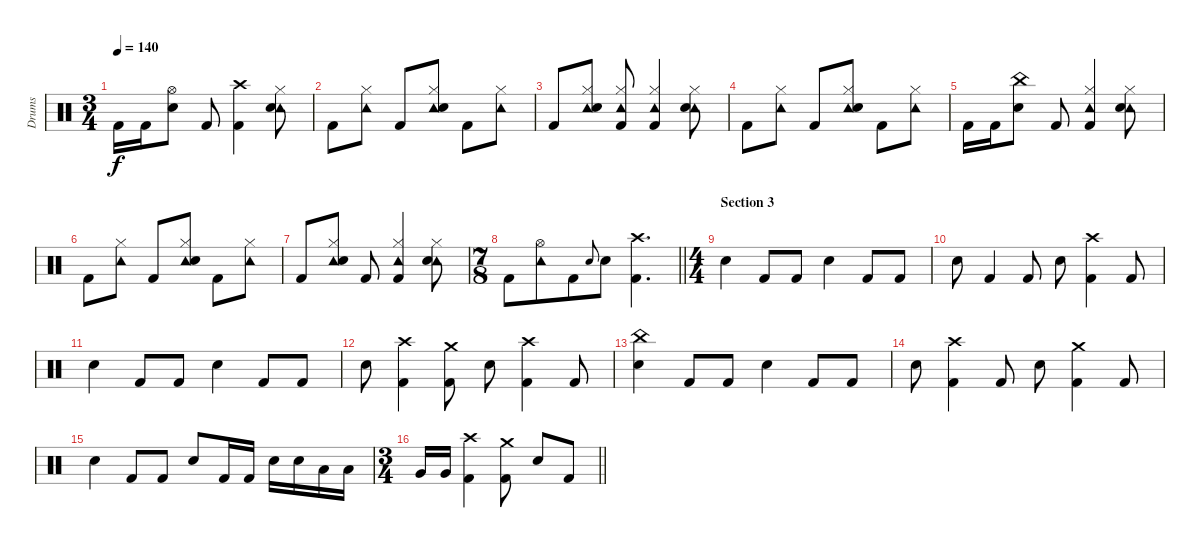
\track ("Drums" "Drums") {instrument percussion}
\staff {score}
\articulation defaults
\ts (3 4)
\tempo 140
\clef neutral
\ks c "Kick (hit) 2".16{dy f} "Kick (hit) 2".16
("Hi-Hat (open)" "Snare (hit) 2").8 "Kick (hit) 2".8 ("Crash high (hit)" "Kick (hit) 2").4 ("Hi-Hat (closed)" "Tambourine (hit)" "Snare (hit) 2").8 |
"Kick (hit) 2".8 ("Hi-Hat (closed)" "Tambourine (hit)").8 "Kick (hit) 2".8 ("Hi-Hat (closed)" "Tambourine (hit)" "Snare (hit) 2").8 "Kick (hit) 2".8 ("Hi-Hat (closed)" "Tambourine (hit)").8 |
"Kick (hit) 2".8 ("Hi-Hat (closed)" "Tambourine (hit)" "Snare (hit) 2").8 ("Hi-Hat (closed)" "Tambourine (hit)" "Kick (hit) 2").8 ("Hi-Hat (closed)" "Tambourine (hit)" "Kick (hit) 2").4 ("Hi-Hat (closed)" "Tambourine (hit)" "Snare (hit) 2").8 |
"Kick (hit) 2".8 ("Hi-Hat (closed)" "Tambourine (hit)").8 "Kick (hit) 2".8 ("Hi-Hat (closed)" "Tambourine (hit)" "Snare (hit) 2").8 "Kick (hit) 2".8 ("Hi-Hat (closed)" "Tambourine (hit)").8 |
"Kick (hit) 2".16 "Kick (hit) 2".16 ("China (hit)" "Snare (hit) 2").8 "Kick (hit) 2".8 ("Hi-Hat (closed)" "Tambourine (hit)" "Kick (hit) 2").4 ("Hi-Hat (closed)" "Tambourine (hit)" "Snare (hit) 2").8 |
"Kick (hit) 2".8 ("Hi-Hat (closed)" "Tambourine (hit)").8 "Kick (hit) 2".8 ("Hi-Hat (closed)" "Tambourine (hit)" "Snare (hit) 2").8 "Kick (hit) 2".8 ("Hi-Hat (closed)" "Tambourine (hit)").8 |
"Kick (hit) 2".8 ("Hi-Hat (closed)" "Tambourine (hit)" "Snare (hit) 2").8 "Kick (hit) 2".8 ("Hi-Hat (closed)" "Tambourine (hit)" "Kick (hit) 2").4 ("Hi-Hat (closed)" "Tambourine (hit)" "Snare (hit) 2").8 |
\ts (7 8)
\barLineRight lightlight "Kick (hit) 2".8
("Hi-Hat (open)" "Tambourine (hit)").8 "Kick (hit) 2".8 "Snare (hit) 2"{h}.8{gr onbeat} "Snare (hit) 2".8 ("Crash high (hit)" "Kick (hit) 2").4{d} |
\ts (4 4)
\section ("" "Section 3")
"Snare (hit) 2".4 "Kick (hit) 2".8 "Kick (hit) 2".8 "Snare (hit) 2".4 "Kick (hit) 2".8 "Kick (hit) 2".8 |
"Snare (hit) 2".8 "Kick (hit) 2".4 "Kick (hit) 2".8 "Snare (hit) 2".8 ("Crash high (hit)" "Kick (hit) 2").4 "Kick (hit) 2".8 |
"Snare (hit) 2".4 "Kick (hit) 2".8 "Kick (hit) 2".8 "Snare (hit) 2".4 "Kick (hit) 2".8 "Kick (hit) 2".8 |
"Snare (hit) 2".8 ("Crash high (hit)" "Kick (hit) 2").4 ("Crash medium (hit)" "Kick (hit) 2").8 "Snare (hit) 2".8 ("Crash high (hit)" "Kick (hit) 2").4 "Kick (hit) 2".8 |
("China (hit)" "Snare (hit) 2").4 "Kick (hit) 2".8 "Kick (hit) 2".8 "Snare (hit) 2".4 "Kick (hit) 2".8 "Kick (hit) 2".8 |
"Snare (hit) 2".8 ("Crash high (hit)" "Kick (hit) 2").4 "Kick (hit) 2".8 "Snare (hit) 2".8 ("Crash medium (hit)" "Kick (hit) 2").4 "Kick (hit) 2".8 |
"Snare (hit) 2".4 "Kick (hit) 2".8 "Kick (hit) 2".8 "Snare (hit) 2".8 "Kick (hit) 2".16 "Kick (hit) 2".16 "Snare (hit) 2".16 "Snare (hit) 2".16 "Low Tom (hit)".16 "Low Tom (hit)".16 |
\ts (3 4)
\barLineRight lightlight "Very Low Tom (hit)".16 "Very Low Tom (hit)".16
("Crash high (hit)" "Kick (hit) 2").4 ("Crash medium (hit)" "Kick (hit) 2").8 "Snare (hit) 2".8 "Kick (hit) 2".8
